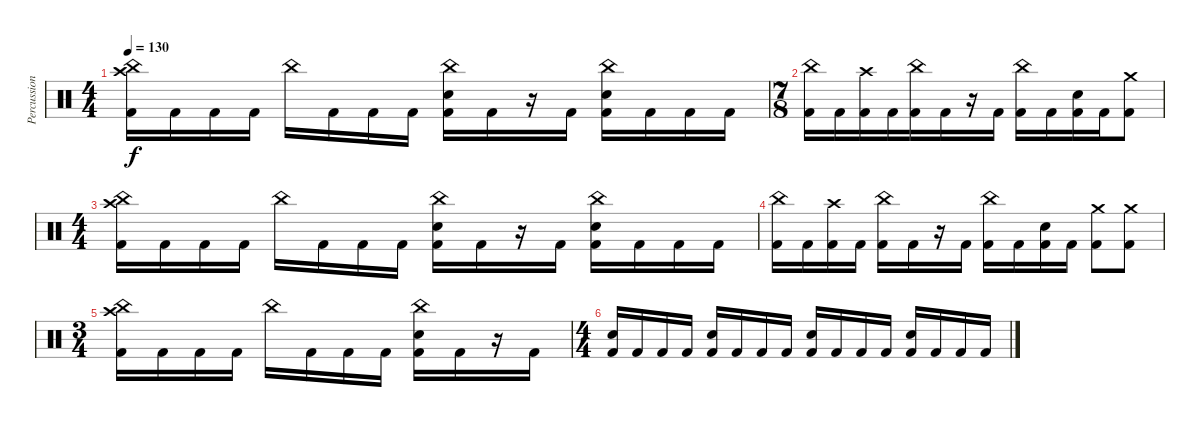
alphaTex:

\track ("Percussion" "Percussion") {instrument percussion}
\staff {score}
\articulation defaults
\ts (4 4)
\tempo 130
\clef neutral
\ks c
("Crash high (hit)" "China (hit)" "Kick (hit) 2").16{dy f} "Kick (hit) 2".16 "Kick (hit) 2".16 "Kick (hit) 2".16 "China (hit)".16 "Kick (hit) 2".16 "Kick (hit) 2".16 "Kick (hit) 2".16 ("China (hit)" "Snare (hit) 2" "Kick (hit) 2").16 "Kick (hit) 2".16 r.16 "Kick (hit) 2".16 ("China (hit)" "Snare (hit) 2" "Kick (hit) 2").16 "Kick (hit) 2".16 "Kick (hit) 2".16 "Kick (hit) 2".16 |
\ts (7 8)
("China (hit)" "Kick (hit) 2").16 "Kick (hit) 2".16 ("Crash high (hit)" "Kick (hit) 2").16 "Kick (hit) 2".16 ("China (hit)" "Kick (hit) 2").16 "Kick (hit) 2".16 r.16 "Kick (hit) 2".16 ("China (hit)" "Kick (hit) 2").16 "Kick (hit) 2".16 ("Snare (hit) 2" "Kick (hit) 2").16 "Kick (hit) 2".16 ("Crash medium (hit)" "Kick (hit) 2").8 |
\ts (4 4)
("Crash high (hit)" "China (hit)" "Kick (hit) 2").16 "Kick (hit) 2".16 "Kick (hit) 2".16 "Kick (hit) 2".16 "China (hit)".16 "Kick (hit) 2".16 "Kick (hit) 2".16 "Kick (hit) 2".16 ("China (hit)" "Snare (hit) 2" "Kick (hit) 2").16 "Kick (hit) 2".16 r.16 "Kick (hit) 2".16 ("China (hit)" "Snare (hit) 2" "Kick (hit) 2").16 "Kick (hit) 2".16 "Kick (hit) 2".16 "Kick (hit) 2".16 |
("China (hit)" "Kick (hit) 2").16 "Kick (hit) 2".16 ("Crash high (hit)" "Kick (hit) 2").16 "Kick (hit) 2".16 ("China (hit)" "Kick (hit) 2").16 "Kick (hit) 2".16 r.16 "Kick (hit) 2".16 ("China (hit)" "Kick (hit) 2").16 "Kick (hit) 2".16 ("Snare (hit) 2" "Kick (hit) 2").16 "Kick (hit) 2".16 ("Crash medium (hit)" "Kick (hit) 2").8 ("Crash medium (hit)" "Kick (hit) 2").8 |
\ts (3 4)
("Crash high (hit)" "China (hit)" "Kick (hit) 2").16 "Kick (hit) 2".16 "Kick (hit) 2".16 "Kick (hit) 2".16 "China (hit)".16 "Kick (hit) 2".16 "Kick (hit) 2".16 "Kick (hit) 2".16 ("China (hit)" "Snare (hit) 2" "Kick (hit) 2").16 "Kick (hit) 2".16 r.16 "Kick (hit) 2".16 |
\ts (4 4)
("Snare (hit) 2" "Kick (hit) 2").16 "Kick (hit) 2".16 "Kick (hit) 2".16 "Kick (hit) 2".16 ("Snare (hit) 2" "Kick (hit) 2").16 "Kick (hit) 2".16 "Kick (hit) 2".16 "Kick (hit) 2".16 ("Snare (hit) 2" "Kick (hit) 2").16 "Kick (hit) 2".16 "Kick (hit) 2".16 "Kick (hit) 2".16 ("Snare (hit) 2" "Kick (hit) 2").16 "Kick (hit) 2".16 "Kick (hit) 2".16 "Kick (hit) 2".16
